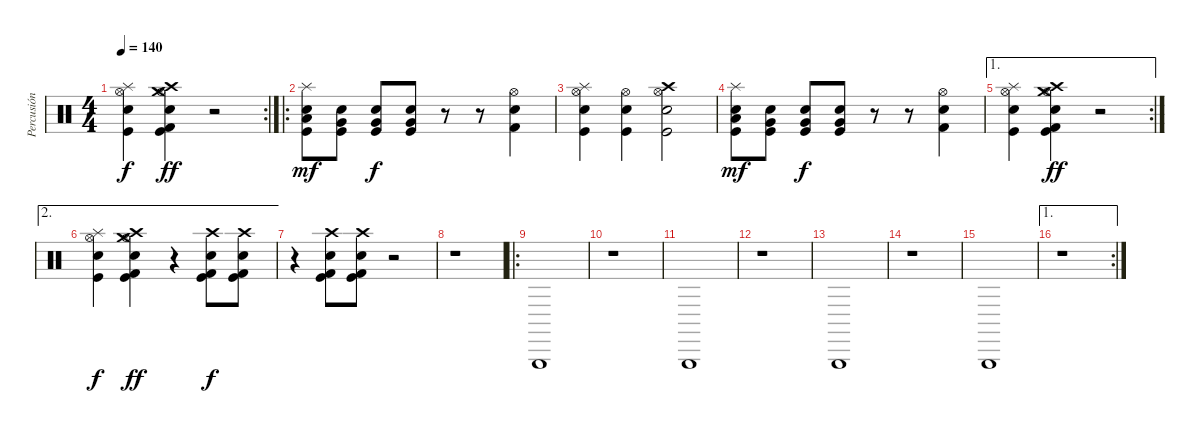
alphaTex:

\track ("Percusión" "Percusión") {instrument percussion}
\staff {score}
\articulation defaults
\rc 2
\ts (4 4)
\tempo 140
\clef neutral
\ks c
("Splash (hit)" "Hi-Hat (open)" "Kick (hit)" "Electric Snare (hit)").4{dy f} ("Kick (hit) 2" "Crash high (hit)" "Crash medium (hit)" "Hi-Hat (open)" "Kick (hit)" "Electric Snare (hit)").4{dy ff} r.2 |
\ro
("Splash (hit)" "Low Floor Tom (hit)" "Electric Snare (hit)" "Kick (hit)").8{dy mf} ("Very Low Tom (hit)" "Electric Snare (hit)" "Kick (hit)").8 ("Very Low Tom (hit)" "Electric Snare (hit)" "Kick (hit)").8{dy f} ("Very Low Tom (hit)" "Electric Snare (hit)" "Kick (hit)").8 r.8 r.8 ("Kick (hit) 2" "Hi-Hat (open)" "Electric Snare (hit)").4 |
("Splash (hit)" "Hi-Hat (open)" "Kick (hit)" "Electric Snare (hit)").4 ("Hi-Hat (open)" "Kick (hit)" "Electric Snare (hit)").4 ("Crash high (hit)" "Hi-Hat (open)" "Kick (hit)" "Electric Snare (hit)").2 |
("Splash (hit)" "Low Floor Tom (hit)" "Electric Snare (hit)" "Kick (hit)").8{dy mf} ("Very Low Tom (hit)" "Electric Snare (hit)" "Kick (hit)").8 ("Very Low Tom (hit)" "Electric Snare (hit)" "Kick (hit)").8{dy f} ("Very Low Tom (hit)" "Electric Snare (hit)" "Kick (hit)").8 r.8 r.8 ("Kick (hit) 2" "Hi-Hat (open)" "Electric Snare (hit)").4 |
\ae 1
\rc 2
("Splash (hit)" "Hi-Hat (open)" "Kick (hit)" "Electric Snare (hit)").4 ("Kick (hit) 2" "Crash high (hit)" "Crash medium (hit)" "Hi-Hat (open)" "Kick (hit)" "Electric Snare (hit)").4{dy ff} r.2 |
\ae 2
("Splash (hit)" "Hi-Hat (open)" "Kick (hit)" "Electric Snare (hit)").4{dy f} ("Kick (hit) 2" "Crash high (hit)" "Crash medium (hit)" "Hi-Hat (open)" "Kick (hit)" "Electric Snare (hit)").4{dy ff} r.4 ("Kick (hit) 2" "Crash high (hit)" "Kick (hit)" "Electric Snare (hit)").8{dy f} ("Kick (hit) 2" "Crash high (hit)" "Kick (hit)" "Electric Snare (hit)").8 |
r.4 ("Kick (hit) 2" "Crash high (hit)" "Kick (hit)" "Electric Snare (hit)").8 ("Kick (hit) 2" "Crash high (hit)" "Kick (hit)" "Electric Snare (hit)").8 r.2 |
r.1 |
\ro "Triangle (hit)".1
|
r.1 |
"Triangle (hit)".1 |
r.1 |
"Triangle (hit)".1 |
r.1 |
"Triangle (hit)".1 |
\ae 1
\rc 2
r.1
